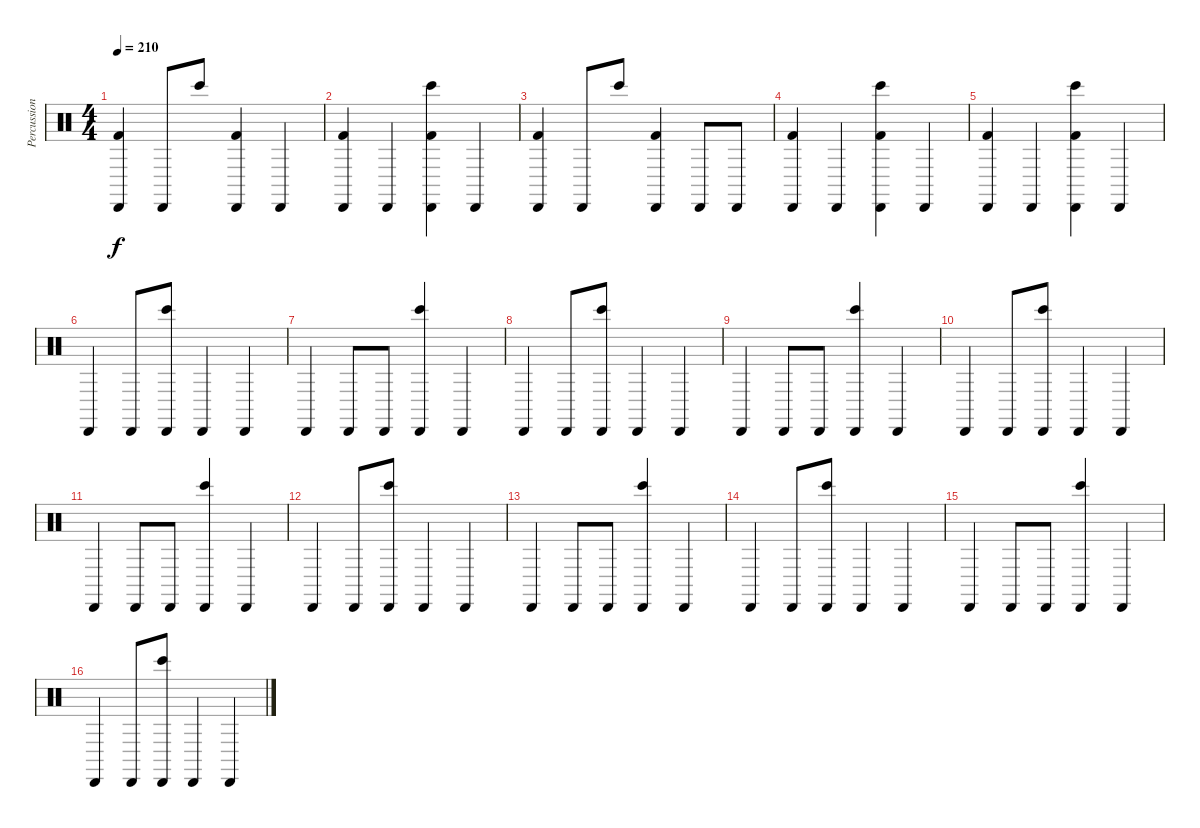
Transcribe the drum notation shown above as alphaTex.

\track ("Percussions" "Percussion") {instrument percussion}
\staff {score}
\articulation defaults
\ts (4 4)
\tempo 210
\clef neutral
\ks c
("Kick (hit) 2" "Cabasa (hit)").4{dy f} "Cabasa (hit)".8 "Bongo High (hit)".8 ("Kick (hit) 2" "Cabasa (hit)").4 "Cabasa (hit)".4 |
("Kick (hit) 2" "Cabasa (hit)").4 "Cabasa (hit)".4 ("Bongo High (hit)" "Kick (hit) 2" "Cabasa (hit)").4 "Cabasa (hit)".4 |
("Kick (hit) 2" "Cabasa (hit)").4 "Cabasa (hit)".8 "Bongo High (hit)".8 ("Kick (hit) 2" "Cabasa (hit)").4 "Cabasa (hit)".8 "Cabasa (hit)".8 |
("Kick (hit) 2" "Cabasa (hit)").4 "Cabasa (hit)".4 ("Bongo High (hit)" "Kick (hit) 2" "Cabasa (hit)").4 "Cabasa (hit)".4 |
("Kick (hit) 2" "Cabasa (hit)").4 "Cabasa (hit)".4 ("Bongo High (hit)" "Kick (hit) 2" "Cabasa (hit)").4 "Cabasa (hit)".4 |
"Cabasa (hit)".4 "Cabasa (hit)".8 ("Bongo High (hit)" "Cabasa (hit)").8 "Cabasa (hit)".4 "Cabasa (hit)".4 |
"Cabasa (hit)".4 "Cabasa (hit)".8 "Cabasa (hit)".8 ("Bongo High (hit)" "Cabasa (hit)").4 "Cabasa (hit)".4 |
"Cabasa (hit)".4 "Cabasa (hit)".8 ("Bongo High (hit)" "Cabasa (hit)").8 "Cabasa (hit)".4 "Cabasa (hit)".4 |
"Cabasa (hit)".4 "Cabasa (hit)".8 "Cabasa (hit)".8 ("Bongo High (hit)" "Cabasa (hit)").4 "Cabasa (hit)".4 |
"Cabasa (hit)".4 "Cabasa (hit)".8 ("Bongo High (hit)" "Cabasa (hit)").8 "Cabasa (hit)".4 "Cabasa (hit)".4 |
"Cabasa (hit)".4 "Cabasa (hit)".8 "Cabasa (hit)".8 ("Bongo High (hit)" "Cabasa (hit)").4 "Cabasa (hit)".4 |
"Cabasa (hit)".4 "Cabasa (hit)".8 ("Bongo High (hit)" "Cabasa (hit)").8 "Cabasa (hit)".4 "Cabasa (hit)".4 |
"Cabasa (hit)".4 "Cabasa (hit)".8 "Cabasa (hit)".8 ("Bongo High (hit)" "Cabasa (hit)").4 "Cabasa (hit)".4 |
"Cabasa (hit)".4 "Cabasa (hit)".8 ("Bongo High (hit)" "Cabasa (hit)").8 "Cabasa (hit)".4 "Cabasa (hit)".4 |
"Cabasa (hit)".4 "Cabasa (hit)".8 "Cabasa (hit)".8 ("Bongo High (hit)" "Cabasa (hit)").4 "Cabasa (hit)".4 |
"Cabasa (hit)".4 "Cabasa (hit)".8 ("Bongo High (hit)" "Cabasa (hit)").8 "Cabasa (hit)".4 "Cabasa (hit)".4
